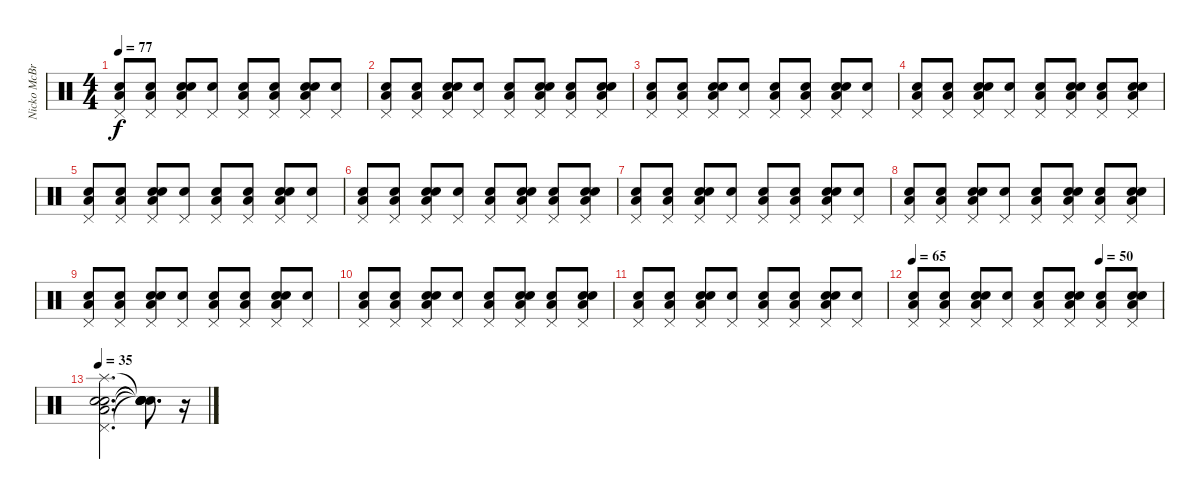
\track ("Nicko McBrain" "Nicko McBr") {instrument percussion}
\staff {score}
\articulation defaults
\ts (4 4)
\tempo 77
\clef neutral
\ks c
("Snare (hit)" "Low Floor Tom (hit)" "Pedal Hi-Hat (hit)").8{dy f} ("Snare (hit)" "Low Floor Tom (hit)" "Pedal Hi-Hat (hit)").8 ("Snare (hit)" "Electric Snare (hit)" "Low Floor Tom (hit)" "Pedal Hi-Hat (hit)").8 ("Snare (hit)" "Pedal Hi-Hat (hit)").8 ("Snare (hit)" "Low Floor Tom (hit)" "Pedal Hi-Hat (hit)").8 ("Snare (hit)" "Low Floor Tom (hit)" "Pedal Hi-Hat (hit)").8 ("Snare (hit)" "Electric Snare (hit)" "Low Floor Tom (hit)" "Pedal Hi-Hat (hit)").8 ("Snare (hit)" "Pedal Hi-Hat (hit)").8 |
("Snare (hit)" "Low Floor Tom (hit)" "Pedal Hi-Hat (hit)").8 ("Snare (hit)" "Low Floor Tom (hit)" "Pedal Hi-Hat (hit)").8 ("Snare (hit)" "Electric Snare (hit)" "Low Floor Tom (hit)" "Pedal Hi-Hat (hit)").8 ("Snare (hit)" "Pedal Hi-Hat (hit)").8 ("Snare (hit)" "Low Floor Tom (hit)" "Pedal Hi-Hat (hit)").8 ("Snare (hit)" "Electric Snare (hit)" "Low Floor Tom (hit)" "Pedal Hi-Hat (hit)").8 ("Snare (hit)" "Low Floor Tom (hit)" "Pedal Hi-Hat (hit)").8 ("Snare (hit)" "Electric Snare (hit)" "Low Floor Tom (hit)" "Pedal Hi-Hat (hit)").8 |
("Snare (hit)" "Low Floor Tom (hit)" "Pedal Hi-Hat (hit)").8 ("Snare (hit)" "Low Floor Tom (hit)" "Pedal Hi-Hat (hit)").8 ("Snare (hit)" "Electric Snare (hit)" "Low Floor Tom (hit)" "Pedal Hi-Hat (hit)").8 ("Snare (hit)" "Pedal Hi-Hat (hit)").8 ("Snare (hit)" "Low Floor Tom (hit)" "Pedal Hi-Hat (hit)").8 ("Snare (hit)" "Low Floor Tom (hit)" "Pedal Hi-Hat (hit)").8 ("Snare (hit)" "Electric Snare (hit)" "Low Floor Tom (hit)" "Pedal Hi-Hat (hit)").8 ("Snare (hit)" "Pedal Hi-Hat (hit)").8 |
("Snare (hit)" "Low Floor Tom (hit)" "Pedal Hi-Hat (hit)").8 ("Snare (hit)" "Low Floor Tom (hit)" "Pedal Hi-Hat (hit)").8 ("Snare (hit)" "Electric Snare (hit)" "Low Floor Tom (hit)" "Pedal Hi-Hat (hit)").8 ("Snare (hit)" "Pedal Hi-Hat (hit)").8 ("Snare (hit)" "Low Floor Tom (hit)" "Pedal Hi-Hat (hit)").8 ("Snare (hit)" "Electric Snare (hit)" "Low Floor Tom (hit)" "Pedal Hi-Hat (hit)").8 ("Snare (hit)" "Low Floor Tom (hit)" "Pedal Hi-Hat (hit)").8 ("Snare (hit)" "Electric Snare (hit)" "Low Floor Tom (hit)" "Pedal Hi-Hat (hit)").8 |
("Snare (hit)" "Low Floor Tom (hit)" "Pedal Hi-Hat (hit)").8 ("Snare (hit)" "Low Floor Tom (hit)" "Pedal Hi-Hat (hit)").8 ("Snare (hit)" "Electric Snare (hit)" "Low Floor Tom (hit)" "Pedal Hi-Hat (hit)").8 ("Snare (hit)" "Pedal Hi-Hat (hit)").8 ("Snare (hit)" "Low Floor Tom (hit)" "Pedal Hi-Hat (hit)").8 ("Snare (hit)" "Low Floor Tom (hit)" "Pedal Hi-Hat (hit)").8 ("Snare (hit)" "Electric Snare (hit)" "Low Floor Tom (hit)" "Pedal Hi-Hat (hit)").8 ("Snare (hit)" "Pedal Hi-Hat (hit)").8 |
("Snare (hit)" "Low Floor Tom (hit)" "Pedal Hi-Hat (hit)").8 ("Snare (hit)" "Low Floor Tom (hit)" "Pedal Hi-Hat (hit)").8 ("Snare (hit)" "Electric Snare (hit)" "Low Floor Tom (hit)" "Pedal Hi-Hat (hit)").8 ("Snare (hit)" "Pedal Hi-Hat (hit)").8 ("Snare (hit)" "Low Floor Tom (hit)" "Pedal Hi-Hat (hit)").8 ("Snare (hit)" "Electric Snare (hit)" "Low Floor Tom (hit)" "Pedal Hi-Hat (hit)").8 ("Snare (hit)" "Low Floor Tom (hit)" "Pedal Hi-Hat (hit)").8 ("Snare (hit)" "Electric Snare (hit)" "Low Floor Tom (hit)" "Pedal Hi-Hat (hit)").8 |
("Snare (hit)" "Low Floor Tom (hit)" "Pedal Hi-Hat (hit)").8 ("Snare (hit)" "Low Floor Tom (hit)" "Pedal Hi-Hat (hit)").8 ("Snare (hit)" "Electric Snare (hit)" "Low Floor Tom (hit)" "Pedal Hi-Hat (hit)").8 ("Snare (hit)" "Pedal Hi-Hat (hit)").8 ("Snare (hit)" "Low Floor Tom (hit)" "Pedal Hi-Hat (hit)").8 ("Snare (hit)" "Low Floor Tom (hit)" "Pedal Hi-Hat (hit)").8 ("Snare (hit)" "Electric Snare (hit)" "Low Floor Tom (hit)" "Pedal Hi-Hat (hit)").8 ("Snare (hit)" "Pedal Hi-Hat (hit)").8 |
("Snare (hit)" "Low Floor Tom (hit)" "Pedal Hi-Hat (hit)").8 ("Snare (hit)" "Low Floor Tom (hit)" "Pedal Hi-Hat (hit)").8 ("Snare (hit)" "Electric Snare (hit)" "Low Floor Tom (hit)" "Pedal Hi-Hat (hit)").8 ("Snare (hit)" "Pedal Hi-Hat (hit)").8 ("Snare (hit)" "Low Floor Tom (hit)" "Pedal Hi-Hat (hit)").8 ("Snare (hit)" "Electric Snare (hit)" "Low Floor Tom (hit)" "Pedal Hi-Hat (hit)").8 ("Snare (hit)" "Low Floor Tom (hit)" "Pedal Hi-Hat (hit)").8 ("Snare (hit)" "Electric Snare (hit)" "Low Floor Tom (hit)" "Pedal Hi-Hat (hit)").8 |
("Snare (hit)" "Low Floor Tom (hit)" "Pedal Hi-Hat (hit)").8 ("Snare (hit)" "Low Floor Tom (hit)" "Pedal Hi-Hat (hit)").8 ("Snare (hit)" "Electric Snare (hit)" "Low Floor Tom (hit)" "Pedal Hi-Hat (hit)").8 ("Snare (hit)" "Pedal Hi-Hat (hit)").8 ("Snare (hit)" "Low Floor Tom (hit)" "Pedal Hi-Hat (hit)").8 ("Snare (hit)" "Low Floor Tom (hit)" "Pedal Hi-Hat (hit)").8 ("Snare (hit)" "Electric Snare (hit)" "Low Floor Tom (hit)" "Pedal Hi-Hat (hit)").8 ("Snare (hit)" "Pedal Hi-Hat (hit)").8 |
("Snare (hit)" "Low Floor Tom (hit)" "Pedal Hi-Hat (hit)").8 ("Snare (hit)" "Low Floor Tom (hit)" "Pedal Hi-Hat (hit)").8 ("Snare (hit)" "Electric Snare (hit)" "Low Floor Tom (hit)" "Pedal Hi-Hat (hit)").8 ("Snare (hit)" "Pedal Hi-Hat (hit)").8 ("Snare (hit)" "Low Floor Tom (hit)" "Pedal Hi-Hat (hit)").8 ("Snare (hit)" "Electric Snare (hit)" "Low Floor Tom (hit)" "Pedal Hi-Hat (hit)").8 ("Snare (hit)" "Low Floor Tom (hit)" "Pedal Hi-Hat (hit)").8 ("Snare (hit)" "Electric Snare (hit)" "Low Floor Tom (hit)" "Pedal Hi-Hat (hit)").8 |
("Snare (hit)" "Low Floor Tom (hit)" "Pedal Hi-Hat (hit)").8 ("Snare (hit)" "Low Floor Tom (hit)" "Pedal Hi-Hat (hit)").8 ("Snare (hit)" "Electric Snare (hit)" "Low Floor Tom (hit)" "Pedal Hi-Hat (hit)").8 ("Snare (hit)" "Pedal Hi-Hat (hit)").8 ("Snare (hit)" "Low Floor Tom (hit)" "Pedal Hi-Hat (hit)").8 ("Snare (hit)" "Low Floor Tom (hit)" "Pedal Hi-Hat (hit)").8 ("Snare (hit)" "Electric Snare (hit)" "Low Floor Tom (hit)" "Pedal Hi-Hat (hit)").8 ("Snare (hit)" "Pedal Hi-Hat (hit)").8 |
\tempo 65
\tempo (50 0.75)
("Snare (hit)" "Low Floor Tom (hit)" "Pedal Hi-Hat (hit)").8 ("Snare (hit)" "Low Floor Tom (hit)" "Pedal Hi-Hat (hit)").8 ("Snare (hit)" "Electric Snare (hit)" "Low Floor Tom (hit)" "Pedal Hi-Hat (hit)").8 ("Snare (hit)" "Pedal Hi-Hat (hit)").8 ("Snare (hit)" "Low Floor Tom (hit)" "Pedal Hi-Hat (hit)").8 ("Snare (hit)" "Electric Snare (hit)" "Low Floor Tom (hit)" "Pedal Hi-Hat (hit)").8 ("Snare (hit)" "Low Floor Tom (hit)" "Pedal Hi-Hat (hit)").8 ("Snare (hit)" "Electric Snare (hit)" "Low Floor Tom (hit)" "Pedal Hi-Hat (hit)").8 |
\tempo 35
("Snare (hit)" "Electric Snare (hit)" "Low Floor Tom (hit)" "Pedal Hi-Hat (hit)" "Splash (hit)").2{d} ("Snare (hit)"{t} "Snare (hit)"{t} "Snare (hit)"{t} "Snare (hit)"{t} "Snare (hit)"{t}).8{d} r.16
